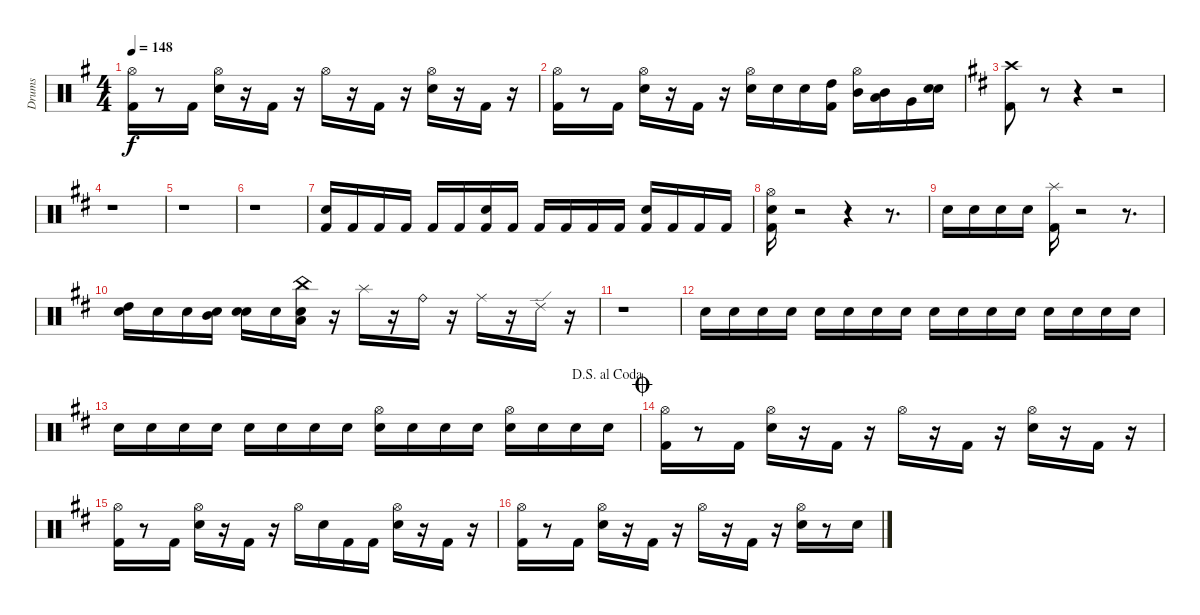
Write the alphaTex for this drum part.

\track ("Drums" "Drums") {instrument percussion}
\staff {score}
\articulation defaults
\ts (4 4)
\tempo 148
\clef neutral
\ks g
("Hi-Hat (open)" "Kick (hit) 2").16{dy f} r.8 "Kick (hit) 2".16 ("Hi-Hat (open)" "Snare (hit) 2").16 r.16 "Kick (hit) 2".16 r.16 "Hi-Hat (open)".16 r.16 "Kick (hit) 2".16 r.16 ("Hi-Hat (open)" "Snare (hit) 2").16 r.16 "Kick (hit) 2".16 r.16 |
("Hi-Hat (open)" "Kick (hit) 2").16 r.8 "Kick (hit) 2".16 ("Hi-Hat (open)" "Snare (hit) 2").16 r.16 "Kick (hit) 2".16 r.16 ("Hi-Hat (open)" "Snare (hit) 2").16 "Snare (hit) 2".16 "Snare (hit) 2".16 ("High Tom (hit)" "Kick (hit) 2").16 ("Hi-Hat (open)" "Mid Tom (hit)").16 ("Mid Tom (hit)" "Low Tom (hit)").16 "Very Low Tom (hit)".16 ("Snare (hit)" "Snare (hit) 2").16 |
\ks d
("Crash high (hit)" "Kick (hit) 2").8 r.8 r.4 r.2 |
r.1 |
r.1 |
r.1 |
("Kick (hit) 2" "Snare (hit) 2").16 "Kick (hit) 2".16 "Kick (hit) 2".16 "Kick (hit) 2".16 "Kick (hit) 2".16 "Kick (hit) 2".16 ("Kick (hit) 2" "Snare (hit) 2").16 "Kick (hit) 2".16 "Kick (hit) 2".16 "Kick (hit) 2".16 "Kick (hit) 2".16 "Kick (hit) 2".16 ("Kick (hit) 2" "Snare (hit) 2").16 "Kick (hit) 2".16 "Kick (hit) 2".16 "Kick (hit) 2".16 |
("Hi-Hat (open)" "Kick (hit) 2" "Snare (hit) 2").16 r.2 r.4 r.8{d} |
"Snare (hit) 2".16 "Snare (hit) 2".16 "Snare (hit) 2".16 "Snare (hit) 2".16 ("Splash (hit)" "Kick (hit) 2").16 r.2 r.8{d} |
("High Tom (hit)" "Snare (hit) 2").16 "Snare (hit) 2".16 "Snare (hit) 2".16 ("Mid Tom (hit)" "Snare (hit) 2").16 ("Snare (hit)" "Snare (hit) 2").16 "Snare (hit) 2".16 ("Low Tom (hit)" "China (hit)" "Snare (hit) 2").16 r.16 "Splash (hit)".16 r.16 "Ride (bell)".16 r.16 "Ride (middle)".16 r.16 "Ride (edge) 2".16 r.16 |
r.1 |
"Snare (hit) 2".16 "Snare (hit) 2".16 "Snare (hit) 2".16 "Snare (hit) 2".16 "Snare (hit) 2".16 "Snare (hit) 2".16 "Snare (hit) 2".16 "Snare (hit) 2".16 "Snare (hit) 2".16 "Snare (hit) 2".16 "Snare (hit) 2".16 "Snare (hit) 2".16 "Snare (hit) 2".16 "Snare (hit) 2".16 "Snare (hit) 2".16 "Snare (hit) 2".16 |
\jump dalsegnoalcoda "Snare (hit) 2".16 "Snare (hit) 2".16 "Snare (hit) 2".16 "Snare (hit) 2".16 "Snare (hit) 2".16 "Snare (hit) 2".16 "Snare (hit) 2".16 "Snare (hit) 2".16
("Snare (hit) 2" "Hi-Hat (open)").16 "Snare (hit) 2".16 "Snare (hit) 2".16 "Snare (hit) 2".16 ("Snare (hit) 2" "Hi-Hat (open)").16 "Snare (hit) 2".16 "Snare (hit) 2".16 "Snare (hit) 2".16 |
\jump coda
("Hi-Hat (open)" "Kick (hit) 2").16 r.8 "Kick (hit) 2".16 ("Hi-Hat (open)" "Snare (hit) 2").16 r.16 "Kick (hit) 2".16 r.16 "Hi-Hat (open)".16 r.16 "Kick (hit) 2".16 r.16 ("Hi-Hat (open)" "Snare (hit) 2").16 r.16 "Kick (hit) 2".16 r.16 |
("Hi-Hat (open)" "Kick (hit) 2").16 r.8 "Kick (hit) 2".16 ("Hi-Hat (open)" "Snare (hit) 2").16 r.16 "Kick (hit) 2".16 r.16 "Hi-Hat (open)".16 "Snare (hit) 2".16 "Kick (hit) 2".16 "Kick (hit) 2".16 ("Hi-Hat (open)" "Snare (hit) 2").16 r.16 "Kick (hit) 2".16 r.16 |
("Hi-Hat (open)" "Kick (hit) 2").16 r.8 "Kick (hit) 2".16 ("Hi-Hat (open)" "Snare (hit) 2").16 r.16 "Kick (hit) 2".16 r.16 "Hi-Hat (open)".16 r.16 "Kick (hit) 2".16 r.16 ("Hi-Hat (open)" "Snare (hit) 2").16 r.8 "Snare (hit) 2".16
